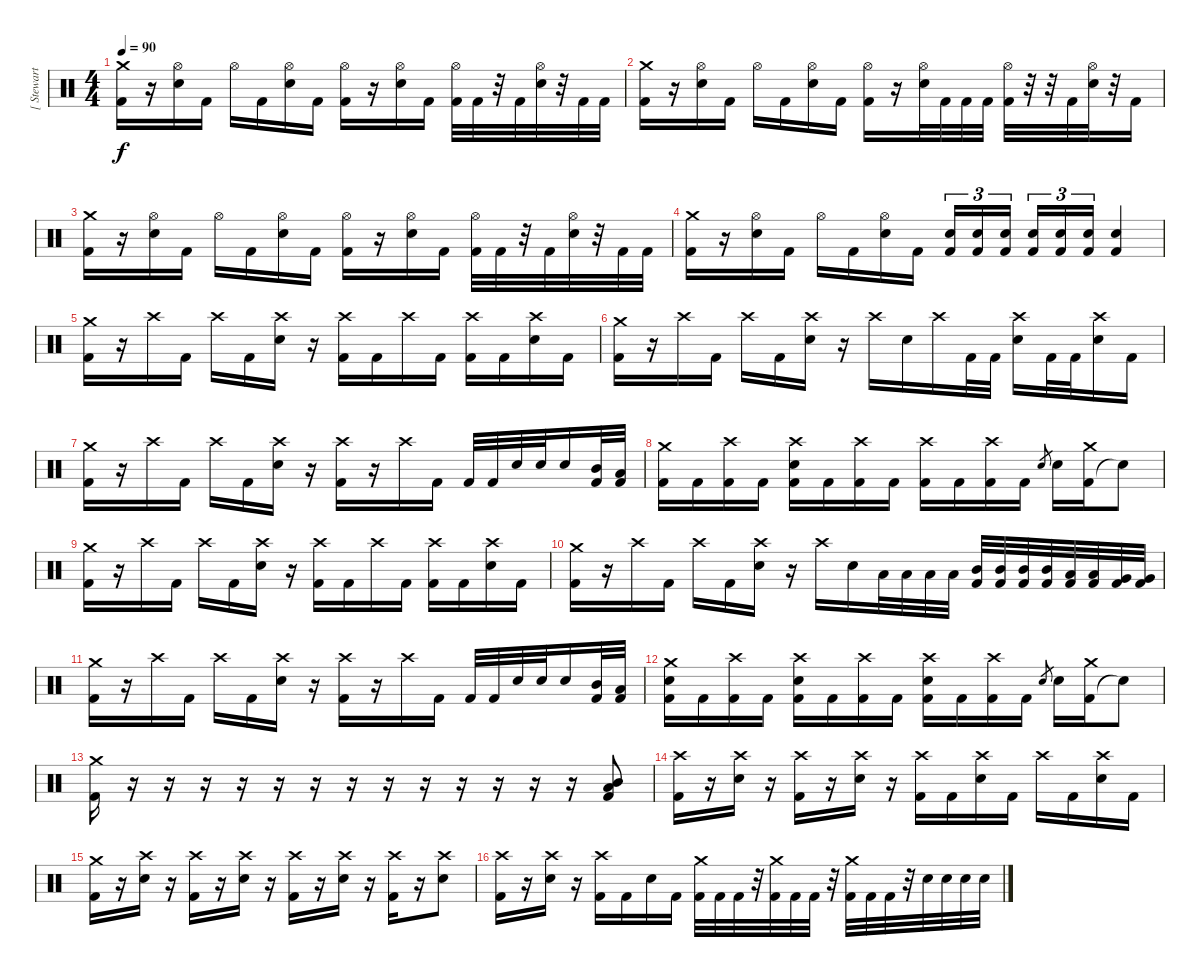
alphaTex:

\track ("[ Stewart ]" "[ Stewart ") {instrument percussion}
\staff {score}
\articulation defaults
\ts (4 4)
\tempo 90
\clef neutral
\ks c
("Kick (hit) 2" "Crash medium (hit)").16{dy f} r.16 ("Electric Snare (hit)" "Hi-Hat (open)").16 "Kick (hit) 2".16 "Hi-Hat (open)".16 "Kick (hit) 2".16 ("Electric Snare (hit)" "Hi-Hat (open)").16 "Kick (hit) 2".16 ("Kick (hit) 2" "Hi-Hat (open)").16 r.16 ("Electric Snare (hit)" "Hi-Hat (open)").16 "Kick (hit) 2".16 ("Kick (hit) 2" "Hi-Hat (open)").32 "Kick (hit) 2".32 r.32 "Kick (hit) 2".32 ("Electric Snare (hit)" "Hi-Hat (open)").32 r.32 "Kick (hit) 2".32 "Kick (hit) 2".32 |
("Kick (hit) 2" "Crash medium (hit)").16 r.16 ("Electric Snare (hit)" "Hi-Hat (open)").16 "Kick (hit) 2".16 "Hi-Hat (open)".16 "Kick (hit) 2".16 ("Electric Snare (hit)" "Hi-Hat (open)").16 "Kick (hit) 2".16 ("Kick (hit) 2" "Hi-Hat (open)").16 r.16 ("Electric Snare (hit)" "Hi-Hat (open)").32 "Kick (hit) 2".32 "Kick (hit) 2".32 "Kick (hit) 2".32 ("Kick (hit) 2" "Hi-Hat (open)").32 r.32 r.32 "Kick (hit) 2".32 ("Electric Snare (hit)" "Hi-Hat (open)").32 r.32 "Kick (hit) 2".16 |
("Kick (hit) 2" "Crash medium (hit)").16 r.16 ("Electric Snare (hit)" "Hi-Hat (open)").16 "Kick (hit) 2".16 "Hi-Hat (open)".16 "Kick (hit) 2".16 ("Electric Snare (hit)" "Hi-Hat (open)").16 "Kick (hit) 2".16 ("Kick (hit) 2" "Hi-Hat (open)").16 r.16 ("Electric Snare (hit)" "Hi-Hat (open)").16 "Kick (hit) 2".16 ("Kick (hit) 2" "Hi-Hat (open)").32 "Kick (hit) 2".32 r.32 "Kick (hit) 2".32 ("Electric Snare (hit)" "Hi-Hat (open)").32 r.32 "Kick (hit) 2".32 "Kick (hit) 2".32 |
("Kick (hit) 2" "Crash medium (hit)").16 r.16 ("Electric Snare (hit)" "Hi-Hat (open)").16 "Kick (hit) 2".16 "Hi-Hat (open)".16 "Kick (hit) 2".16 ("Electric Snare (hit)" "Hi-Hat (open)").16 "Kick (hit) 2".16 ("Electric Snare (hit)" "Kick (hit) 2").16{tu (3 2)} ("Electric Snare (hit)" "Kick (hit) 2").16{tu (3 2)} ("Electric Snare (hit)" "Kick (hit) 2").16{tu (3 2)} ("Electric Snare (hit)" "Kick (hit) 2").16{tu (3 2)} ("Electric Snare (hit)" "Kick (hit) 2").16{tu (3 2)} ("Electric Snare (hit)" "Kick (hit) 2").16{tu (3 2)} ("Electric Snare (hit)" "Kick (hit) 2").4 |
("Kick (hit) 2" "Crash medium (hit)").16 r.16 "Crash high (hit)".16 "Kick (hit) 2".16 "Crash high (hit)".16 "Kick (hit) 2".16 ("Electric Snare (hit)" "Crash high (hit)").16 r.16 ("Kick (hit) 2" "Crash high (hit)").16 "Kick (hit) 2".16 "Crash high (hit)".16 "Kick (hit) 2".16 ("Kick (hit) 2" "Crash high (hit)").16 "Kick (hit) 2".16 ("Electric Snare (hit)" "Crash high (hit)").16 "Kick (hit) 2".16 |
("Kick (hit) 2" "Crash medium (hit)").16 r.16 "Crash high (hit)".16 "Kick (hit) 2".16 "Crash high (hit)".16 "Kick (hit) 2".16 ("Electric Snare (hit)" "Crash high (hit)").16 r.16 "Crash high (hit)".16 "Electric Snare (hit)".16 "Crash high (hit)".16 "Kick (hit) 2".32 "Kick (hit) 2".32 ("Electric Snare (hit)" "Crash high (hit)").16 "Kick (hit) 2".32 "Kick (hit) 2".32 ("Electric Snare (hit)" "Crash high (hit)").16 "Kick (hit) 2".16 |
("Kick (hit) 2" "Crash medium (hit)").16 r.16 "Crash high (hit)".16 "Kick (hit) 2".16 "Crash high (hit)".16 "Kick (hit) 2".16 ("Electric Snare (hit)" "Crash high (hit)").16 r.16 ("Kick (hit) 2" "Crash high (hit)").16 r.16 "Crash high (hit)".16 "Kick (hit) 2".16 "Kick (hit) 2".32 "Kick (hit) 2".32 "Electric Snare (hit)".32 "Electric Snare (hit)".32 "Electric Snare (hit)".16 ("Mid Tom (hit)" "Kick (hit) 2").32 ("Low Tom (hit)" "Kick (hit) 2").32 |
("Kick (hit) 2" "Crash medium (hit)").16 "Kick (hit) 2".16 ("Kick (hit) 2" "Crash high (hit)").16 "Kick (hit) 2".16 ("Kick (hit) 2" "Electric Snare (hit)" "Crash high (hit)").16 "Kick (hit) 2".16 ("Kick (hit) 2" "Crash high (hit)").16 "Kick (hit) 2".16 ("Kick (hit) 2" "Crash high (hit)").16 "Kick (hit) 2".16 ("Kick (hit) 2" "Crash high (hit)").16 "Kick (hit) 2".16 "Electric Snare (hit)".8{gr} "Electric Snare (hit)".16 ("Kick (hit) 2" "Crash medium (hit)").16 "Snare (hit)"{t}.8 |
("Kick (hit) 2" "Crash medium (hit)").16 r.16 "Crash high (hit)".16 "Kick (hit) 2".16 "Crash high (hit)".16 "Kick (hit) 2".16 ("Electric Snare (hit)" "Crash high (hit)").16 r.16 ("Kick (hit) 2" "Crash high (hit)").16 "Kick (hit) 2".16 "Crash high (hit)".16 "Kick (hit) 2".16 ("Kick (hit) 2" "Crash high (hit)").16 "Kick (hit) 2".16 ("Electric Snare (hit)" "Crash high (hit)").16 "Kick (hit) 2".16 |
("Kick (hit) 2" "Crash medium (hit)").16 r.16 "Crash high (hit)".16 "Kick (hit) 2".16 "Crash high (hit)".16 "Kick (hit) 2".16 ("Electric Snare (hit)" "Crash high (hit)").16 r.16 "Crash high (hit)".16 "Electric Snare (hit)".16 "Low Tom (hit)".32 "Low Tom (hit)".32 "Low Tom (hit)".32 "Low Tom (hit)".32 ("Mid Tom (hit)" "Kick (hit) 2").32 ("Mid Tom (hit)" "Kick (hit) 2").32 ("Mid Tom (hit)" "Kick (hit) 2").32 ("Mid Tom (hit)" "Kick (hit) 2").32 ("Low Tom (hit)" "Kick (hit) 2").32 ("Low Tom (hit)" "Kick (hit) 2").32 ("Very Low Tom (hit)" "Kick (hit) 2").32 ("Very Low Tom (hit)" "Kick (hit) 2").32 |
("Kick (hit) 2" "Crash medium (hit)").16 r.16 "Crash high (hit)".16 "Kick (hit) 2".16 "Crash high (hit)".16 "Kick (hit) 2".16 ("Electric Snare (hit)" "Crash high (hit)").16 r.16 ("Kick (hit) 2" "Crash high (hit)").16 r.16 "Crash high (hit)".16 "Kick (hit) 2".16 "Kick (hit) 2".32 "Kick (hit) 2".32 "Electric Snare (hit)".32 "Electric Snare (hit)".32 "Electric Snare (hit)".16 ("Mid Tom (hit)" "Kick (hit) 2").32 ("Low Tom (hit)" "Kick (hit) 2").32 |
("Kick (hit) 2" "Electric Snare (hit)" "Crash medium (hit)").16 "Kick (hit) 2".16 ("Kick (hit) 2" "Crash high (hit)").16 "Kick (hit) 2".16 ("Kick (hit) 2" "Electric Snare (hit)" "Crash high (hit)").16 "Kick (hit) 2".16 ("Kick (hit) 2" "Crash high (hit)").16 "Kick (hit) 2".16 ("Kick (hit) 2" "Electric Snare (hit)" "Crash high (hit)").16 "Kick (hit) 2".16 ("Kick (hit) 2" "Crash high (hit)").16 "Kick (hit) 2".16 "Electric Snare (hit)".8{gr} "Electric Snare (hit)".16 ("Kick (hit) 2" "Crash medium (hit)").16 "Snare (hit)"{t}.8 |
("Kick (hit) 2" "Crash medium (hit)").16 r.16 r.16 r.16 r.16 r.16 r.16 r.16 r.16 r.16 r.16 r.16 r.16 r.16 ("Mid Tom (hit)" "Low Tom (hit)" "Kick (hit) 2").8 |
("Kick (hit) 2" "Crash high (hit)").16 r.16 ("Electric Snare (hit)" "Crash high (hit)").16 r.16 ("Kick (hit) 2" "Crash high (hit)").16 r.16 ("Electric Snare (hit)" "Crash high (hit)").16 r.16 ("Kick (hit) 2" "Crash high (hit)").16 "Kick (hit) 2".16 ("Electric Snare (hit)" "Crash high (hit)").16 "Kick (hit) 2".16 "Crash high (hit)".16 "Kick (hit) 2".16 ("Electric Snare (hit)" "Crash high (hit)").16 "Kick (hit) 2".16 |
("Kick (hit) 2" "Crash medium (hit)").16 r.16 ("Electric Snare (hit)" "Crash high (hit)").16 r.16 ("Kick (hit) 2" "Crash high (hit)").16 r.16 ("Electric Snare (hit)" "Crash high (hit)").16 r.16 ("Kick (hit) 2" "Crash high (hit)").16 r.16 ("Electric Snare (hit)" "Crash high (hit)").16 r.16 ("Kick (hit) 2" "Crash high (hit)").16 r.16 ("Electric Snare (hit)" "Crash high (hit)").8 |
("Kick (hit) 2" "Crash high (hit)").16 r.16 ("Electric Snare (hit)" "Crash high (hit)").16 r.16 ("Kick (hit) 2" "Crash high (hit)").16 "Kick (hit) 2".16 "Electric Snare (hit)".16 "Kick (hit) 2".16 ("Kick (hit) 2" "Crash medium (hit)").32 "Kick (hit) 2".32 "Kick (hit) 2".32 r.32 ("Kick (hit) 2" "Crash medium (hit)").32 "Kick (hit) 2".32 "Kick (hit) 2".32 r.32 ("Kick (hit) 2" "Crash medium (hit)").32 "Kick (hit) 2".32 "Kick (hit) 2".32 r.32 "Electric Snare (hit)".32 "Electric Snare (hit)".32 "Electric Snare (hit)".32 "Electric Snare (hit)".32
